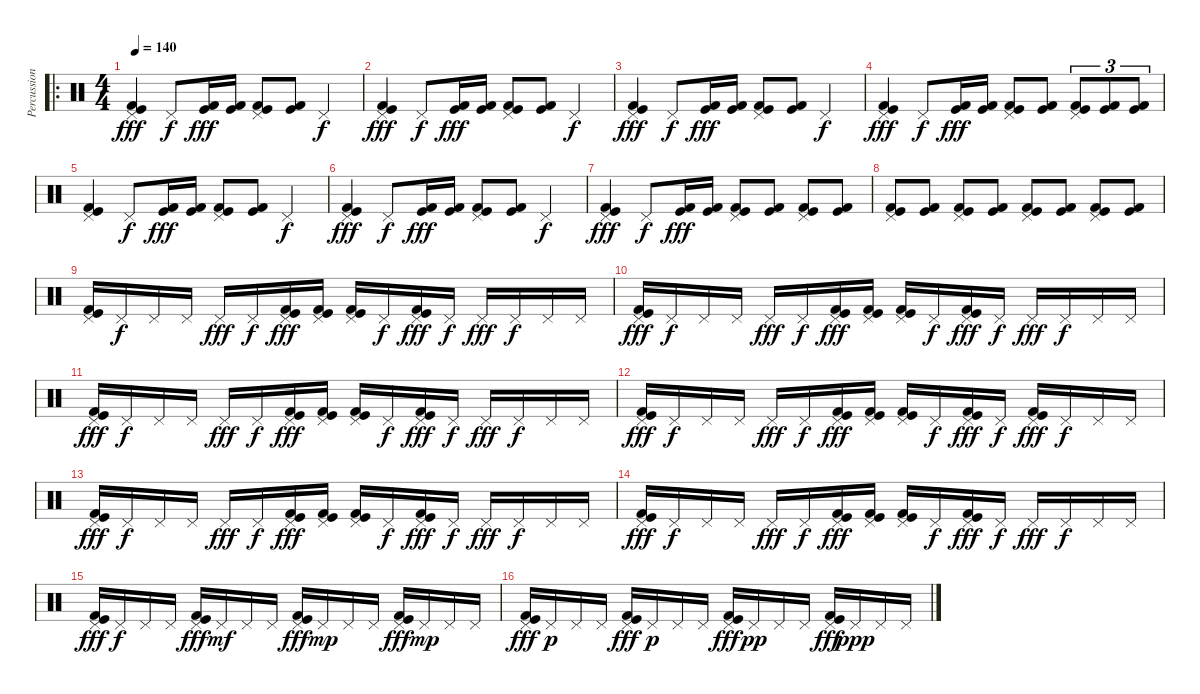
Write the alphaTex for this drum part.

\track ("Percussion" "Percussion") {instrument percussion}
\staff {score}
\articulation defaults
\ro
\ts (4 4)
\tempo 140
\clef neutral
\ks c
("Pedal Hi-Hat (hit)" "Kick (hit)" "Kick (hit) 2").4{dy fff} "Pedal Hi-Hat (hit)".8{dy f} ("Kick (hit)" "Kick (hit) 2").16{dy fff} ("Kick (hit)" "Kick (hit) 2").16 ("Pedal Hi-Hat (hit)" "Kick (hit)" "Kick (hit) 2").8 ("Kick (hit)" "Kick (hit) 2").8 "Pedal Hi-Hat (hit)".4{dy f} |
("Pedal Hi-Hat (hit)" "Kick (hit)" "Kick (hit) 2").4{dy fff} "Pedal Hi-Hat (hit)".8{dy f} ("Kick (hit)" "Kick (hit) 2").16{dy fff} ("Kick (hit)" "Kick (hit) 2").16 ("Pedal Hi-Hat (hit)" "Kick (hit)" "Kick (hit) 2").8 ("Kick (hit)" "Kick (hit) 2").8 "Pedal Hi-Hat (hit)".4{dy f} |
("Pedal Hi-Hat (hit)" "Kick (hit)" "Kick (hit) 2").4{dy fff} "Pedal Hi-Hat (hit)".8{dy f} ("Kick (hit)" "Kick (hit) 2").16{dy fff} ("Kick (hit)" "Kick (hit) 2").16 ("Pedal Hi-Hat (hit)" "Kick (hit)" "Kick (hit) 2").8 ("Kick (hit)" "Kick (hit) 2").8 "Pedal Hi-Hat (hit)".4{dy f} |
("Pedal Hi-Hat (hit)" "Kick (hit)" "Kick (hit) 2").4{dy fff} "Pedal Hi-Hat (hit)".8{dy f} ("Kick (hit)" "Kick (hit) 2").16{dy fff} ("Kick (hit)" "Kick (hit) 2").16 ("Pedal Hi-Hat (hit)" "Kick (hit)" "Kick (hit) 2").8 ("Kick (hit)" "Kick (hit) 2").8 ("Pedal Hi-Hat (hit)" "Kick (hit)" "Kick (hit) 2").8{tu (3 2)} ("Kick (hit)" "Kick (hit) 2").8{tu (3 2)} ("Kick (hit)" "Kick (hit) 2").8{tu (3 2)} |
("Pedal Hi-Hat (hit)" "Kick (hit)" "Kick (hit) 2").4 "Pedal Hi-Hat (hit)".8{dy f} ("Kick (hit)" "Kick (hit) 2").16{dy fff} ("Kick (hit)" "Kick (hit) 2").16 ("Pedal Hi-Hat (hit)" "Kick (hit)" "Kick (hit) 2").8 ("Kick (hit)" "Kick (hit) 2").8 "Pedal Hi-Hat (hit)".4{dy f} |
("Pedal Hi-Hat (hit)" "Kick (hit)" "Kick (hit) 2").4{dy fff} "Pedal Hi-Hat (hit)".8{dy f} ("Kick (hit)" "Kick (hit) 2").16{dy fff} ("Kick (hit)" "Kick (hit) 2").16 ("Pedal Hi-Hat (hit)" "Kick (hit)" "Kick (hit) 2").8 ("Kick (hit)" "Kick (hit) 2").8 "Pedal Hi-Hat (hit)".4{dy f} |
("Pedal Hi-Hat (hit)" "Kick (hit)" "Kick (hit) 2").4{dy fff} "Pedal Hi-Hat (hit)".8{dy f} ("Kick (hit)" "Kick (hit) 2").16{dy fff} ("Kick (hit)" "Kick (hit) 2").16 ("Pedal Hi-Hat (hit)" "Kick (hit)" "Kick (hit) 2").8 ("Kick (hit)" "Kick (hit) 2").8 ("Pedal Hi-Hat (hit)" "Kick (hit)" "Kick (hit) 2").8 ("Kick (hit)" "Kick (hit) 2").8 |
("Pedal Hi-Hat (hit)" "Kick (hit)" "Kick (hit) 2").8 ("Kick (hit)" "Kick (hit) 2").8 ("Pedal Hi-Hat (hit)" "Kick (hit)" "Kick (hit) 2").8 ("Kick (hit)" "Kick (hit) 2").8 ("Pedal Hi-Hat (hit)" "Kick (hit)" "Kick (hit) 2").8 ("Kick (hit)" "Kick (hit) 2").8 ("Pedal Hi-Hat (hit)" "Kick (hit)" "Kick (hit) 2").8 ("Kick (hit)" "Kick (hit) 2").8 |
("Pedal Hi-Hat (hit)" "Kick (hit)" "Kick (hit) 2").16 "Pedal Hi-Hat (hit)".16{dy f} "Pedal Hi-Hat (hit)".16 "Pedal Hi-Hat (hit)".16 "Pedal Hi-Hat (hit)".16{dy fff} "Pedal Hi-Hat (hit)".16{dy f} ("Pedal Hi-Hat (hit)" "Kick (hit)" "Kick (hit) 2").16{dy fff} ("Pedal Hi-Hat (hit)" "Kick (hit)" "Kick (hit) 2").16 ("Pedal Hi-Hat (hit)" "Kick (hit)" "Kick (hit) 2").16 "Pedal Hi-Hat (hit)".16{dy f} ("Pedal Hi-Hat (hit)" "Kick (hit)" "Kick (hit) 2").16{dy fff} "Pedal Hi-Hat (hit)".16{dy f} "Pedal Hi-Hat (hit)".16{dy fff} "Pedal Hi-Hat (hit)".16{dy f} "Pedal Hi-Hat (hit)".16 "Pedal Hi-Hat (hit)".16 |
("Pedal Hi-Hat (hit)" "Kick (hit)" "Kick (hit) 2").16{dy fff} "Pedal Hi-Hat (hit)".16{dy f} "Pedal Hi-Hat (hit)".16 "Pedal Hi-Hat (hit)".16 "Pedal Hi-Hat (hit)".16{dy fff} "Pedal Hi-Hat (hit)".16{dy f} ("Pedal Hi-Hat (hit)" "Kick (hit)" "Kick (hit) 2").16{dy fff} ("Pedal Hi-Hat (hit)" "Kick (hit)" "Kick (hit) 2").16 ("Pedal Hi-Hat (hit)" "Kick (hit)" "Kick (hit) 2").16 "Pedal Hi-Hat (hit)".16{dy f} ("Pedal Hi-Hat (hit)" "Kick (hit)" "Kick (hit) 2").16{dy fff} "Pedal Hi-Hat (hit)".16{dy f} "Pedal Hi-Hat (hit)".16{dy fff} "Pedal Hi-Hat (hit)".16{dy f} "Pedal Hi-Hat (hit)".16 "Pedal Hi-Hat (hit)".16 |
("Pedal Hi-Hat (hit)" "Kick (hit)" "Kick (hit) 2").16{dy fff} "Pedal Hi-Hat (hit)".16{dy f} "Pedal Hi-Hat (hit)".16 "Pedal Hi-Hat (hit)".16 "Pedal Hi-Hat (hit)".16{dy fff} "Pedal Hi-Hat (hit)".16{dy f} ("Pedal Hi-Hat (hit)" "Kick (hit)" "Kick (hit) 2").16{dy fff} ("Pedal Hi-Hat (hit)" "Kick (hit)" "Kick (hit) 2").16 ("Pedal Hi-Hat (hit)" "Kick (hit)" "Kick (hit) 2").16 "Pedal Hi-Hat (hit)".16{dy f} ("Pedal Hi-Hat (hit)" "Kick (hit)" "Kick (hit) 2").16{dy fff} "Pedal Hi-Hat (hit)".16{dy f} "Pedal Hi-Hat (hit)".16{dy fff} "Pedal Hi-Hat (hit)".16{dy f} "Pedal Hi-Hat (hit)".16 "Pedal Hi-Hat (hit)".16 |
("Pedal Hi-Hat (hit)" "Kick (hit)" "Kick (hit) 2").16{dy fff} "Pedal Hi-Hat (hit)".16{dy f} "Pedal Hi-Hat (hit)".16 "Pedal Hi-Hat (hit)".16 "Pedal Hi-Hat (hit)".16{dy fff} "Pedal Hi-Hat (hit)".16{dy f} ("Pedal Hi-Hat (hit)" "Kick (hit)" "Kick (hit) 2").16{dy fff} ("Pedal Hi-Hat (hit)" "Kick (hit)" "Kick (hit) 2").16 ("Pedal Hi-Hat (hit)" "Kick (hit)" "Kick (hit) 2").16 "Pedal Hi-Hat (hit)".16{dy f} ("Pedal Hi-Hat (hit)" "Kick (hit)" "Kick (hit) 2").16{dy fff} "Pedal Hi-Hat (hit)".16{dy f} ("Pedal Hi-Hat (hit)" "Kick (hit)" "Kick (hit) 2").16{dy fff} "Pedal Hi-Hat (hit)".16{dy f} "Pedal Hi-Hat (hit)".16 "Pedal Hi-Hat (hit)".16 |
("Pedal Hi-Hat (hit)" "Kick (hit)" "Kick (hit) 2").16{dy fff} "Pedal Hi-Hat (hit)".16{dy f} "Pedal Hi-Hat (hit)".16 "Pedal Hi-Hat (hit)".16 "Pedal Hi-Hat (hit)".16{dy fff} "Pedal Hi-Hat (hit)".16{dy f} ("Pedal Hi-Hat (hit)" "Kick (hit)" "Kick (hit) 2").16{dy fff} ("Pedal Hi-Hat (hit)" "Kick (hit)" "Kick (hit) 2").16 ("Pedal Hi-Hat (hit)" "Kick (hit)" "Kick (hit) 2").16 "Pedal Hi-Hat (hit)".16{dy f} ("Pedal Hi-Hat (hit)" "Kick (hit)" "Kick (hit) 2").16{dy fff} "Pedal Hi-Hat (hit)".16{dy f} "Pedal Hi-Hat (hit)".16{dy fff} "Pedal Hi-Hat (hit)".16{dy f} "Pedal Hi-Hat (hit)".16 "Pedal Hi-Hat (hit)".16 |
("Pedal Hi-Hat (hit)" "Kick (hit)" "Kick (hit) 2").16{dy fff} "Pedal Hi-Hat (hit)".16{dy f} "Pedal Hi-Hat (hit)".16 "Pedal Hi-Hat (hit)".16 "Pedal Hi-Hat (hit)".16{dy fff} "Pedal Hi-Hat (hit)".16{dy f} ("Pedal Hi-Hat (hit)" "Kick (hit)" "Kick (hit) 2").16{dy fff} ("Pedal Hi-Hat (hit)" "Kick (hit)" "Kick (hit) 2").16 ("Pedal Hi-Hat (hit)" "Kick (hit)" "Kick (hit) 2").16 "Pedal Hi-Hat (hit)".16{dy f} ("Pedal Hi-Hat (hit)" "Kick (hit)" "Kick (hit) 2").16{dy fff} "Pedal Hi-Hat (hit)".16{dy f} "Pedal Hi-Hat (hit)".16{dy fff} "Pedal Hi-Hat (hit)".16{dy f} "Pedal Hi-Hat (hit)".16 "Pedal Hi-Hat (hit)".16 |
("Pedal Hi-Hat (hit)" "Kick (hit)" "Kick (hit) 2").16{dy fff} "Pedal Hi-Hat (hit)".16{dy f} "Pedal Hi-Hat (hit)".16 "Pedal Hi-Hat (hit)".16 ("Pedal Hi-Hat (hit)" "Kick (hit)" "Kick (hit) 2").16{dy fff} "Pedal Hi-Hat (hit)".16{dy mf} "Pedal Hi-Hat (hit)".16 "Pedal Hi-Hat (hit)".16 ("Pedal Hi-Hat (hit)" "Kick (hit)" "Kick (hit) 2").16{dy fff} "Pedal Hi-Hat (hit)".16{dy mp} "Pedal Hi-Hat (hit)".16 "Pedal Hi-Hat (hit)".16 ("Pedal Hi-Hat (hit)" "Kick (hit)" "Kick (hit) 2").16{dy fff} "Pedal Hi-Hat (hit)".16{dy mp} "Pedal Hi-Hat (hit)".16 "Pedal Hi-Hat (hit)".16 |
("Pedal Hi-Hat (hit)" "Kick (hit)" "Kick (hit) 2").16{dy fff} "Pedal Hi-Hat (hit)".16{dy p} "Pedal Hi-Hat (hit)".16 "Pedal Hi-Hat (hit)".16 ("Pedal Hi-Hat (hit)" "Kick (hit)" "Kick (hit) 2").16{dy fff} "Pedal Hi-Hat (hit)".16{dy p} "Pedal Hi-Hat (hit)".16 "Pedal Hi-Hat (hit)".16 ("Pedal Hi-Hat (hit)" "Kick (hit)" "Kick (hit) 2").16{dy fff} "Pedal Hi-Hat (hit)".16{dy pp} "Pedal Hi-Hat (hit)".16 "Pedal Hi-Hat (hit)".16 ("Pedal Hi-Hat (hit)" "Kick (hit)" "Kick (hit) 2").16{dy fff} "Pedal Hi-Hat (hit)".16{dy ppp} "Pedal Hi-Hat (hit)".16 "Pedal Hi-Hat (hit)".16
